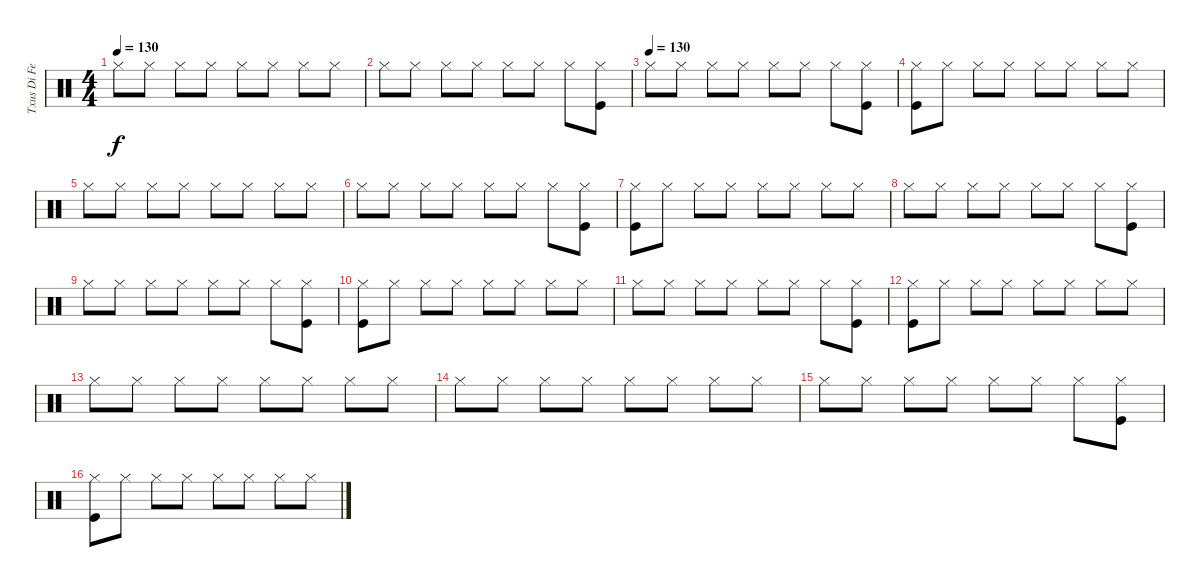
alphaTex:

\track ("Txus Di Fellatio" "Txus Di Fe") {instrument percussion}
\staff {score}
\articulation defaults
\ts (4 4)
\tempo 130
\clef neutral
\ks c "Hi-Hat (closed)".8{dy f} "Hi-Hat (closed)".8 "Hi-Hat (closed)".8 "Hi-Hat (closed)".8 "Hi-Hat (closed)".8 "Hi-Hat (closed)".8 "Hi-Hat (closed)".8 "Hi-Hat (closed)".8
|
"Hi-Hat (closed)".8 "Hi-Hat (closed)".8 "Hi-Hat (closed)".8 "Hi-Hat (closed)".8 "Hi-Hat (closed)".8 "Hi-Hat (closed)".8 "Hi-Hat (closed)".8 ("Hi-Hat (closed)" "Kick (hit)").8 |
\tempo (130)
"Hi-Hat (closed)".8 "Hi-Hat (closed)".8 "Hi-Hat (closed)".8 "Hi-Hat (closed)".8 "Hi-Hat (closed)".8 "Hi-Hat (closed)".8 "Hi-Hat (closed)".8 ("Hi-Hat (closed)" "Kick (hit)").8 |
("Hi-Hat (closed)" "Kick (hit)").8 "Hi-Hat (closed)".8 "Hi-Hat (closed)".8 "Hi-Hat (closed)".8 "Hi-Hat (closed)".8 "Hi-Hat (closed)".8 "Hi-Hat (closed)".8 "Hi-Hat (closed)".8 |
"Hi-Hat (closed)".8 "Hi-Hat (closed)".8 "Hi-Hat (closed)".8 "Hi-Hat (closed)".8 "Hi-Hat (closed)".8 "Hi-Hat (closed)".8 "Hi-Hat (closed)".8 "Hi-Hat (closed)".8 |
"Hi-Hat (closed)".8 "Hi-Hat (closed)".8 "Hi-Hat (closed)".8 "Hi-Hat (closed)".8 "Hi-Hat (closed)".8 "Hi-Hat (closed)".8 "Hi-Hat (closed)".8 ("Hi-Hat (closed)" "Kick (hit)").8 |
("Hi-Hat (closed)" "Kick (hit)").8 "Hi-Hat (closed)".8 "Hi-Hat (closed)".8 "Hi-Hat (closed)".8 "Hi-Hat (closed)".8 "Hi-Hat (closed)".8 "Hi-Hat (closed)".8 "Hi-Hat (closed)".8 |
"Hi-Hat (closed)".8 "Hi-Hat (closed)".8 "Hi-Hat (closed)".8 "Hi-Hat (closed)".8 "Hi-Hat (closed)".8 "Hi-Hat (closed)".8 "Hi-Hat (closed)".8 ("Hi-Hat (closed)" "Kick (hit)").8 |
"Hi-Hat (closed)".8 "Hi-Hat (closed)".8 "Hi-Hat (closed)".8 "Hi-Hat (closed)".8 "Hi-Hat (closed)".8 "Hi-Hat (closed)".8 "Hi-Hat (closed)".8 ("Hi-Hat (closed)" "Kick (hit)").8 |
("Hi-Hat (closed)" "Kick (hit)").8 "Hi-Hat (closed)".8 "Hi-Hat (closed)".8 "Hi-Hat (closed)".8 "Hi-Hat (closed)".8 "Hi-Hat (closed)".8 "Hi-Hat (closed)".8 "Hi-Hat (closed)".8 |
"Hi-Hat (closed)".8 "Hi-Hat (closed)".8 "Hi-Hat (closed)".8 "Hi-Hat (closed)".8 "Hi-Hat (closed)".8 "Hi-Hat (closed)".8 "Hi-Hat (closed)".8 ("Hi-Hat (closed)" "Kick (hit)").8 |
("Hi-Hat (closed)" "Kick (hit)").8 "Hi-Hat (closed)".8 "Hi-Hat (closed)".8 "Hi-Hat (closed)".8 "Hi-Hat (closed)".8 "Hi-Hat (closed)".8 "Hi-Hat (closed)".8 "Hi-Hat (closed)".8 |
"Hi-Hat (closed)".8 "Hi-Hat (closed)".8 "Hi-Hat (closed)".8 "Hi-Hat (closed)".8 "Hi-Hat (closed)".8 "Hi-Hat (closed)".8 "Hi-Hat (closed)".8 "Hi-Hat (closed)".8 |
"Hi-Hat (closed)".8 "Hi-Hat (closed)".8 "Hi-Hat (closed)".8 "Hi-Hat (closed)".8 "Hi-Hat (closed)".8 "Hi-Hat (closed)".8 "Hi-Hat (closed)".8 "Hi-Hat (closed)".8 |
"Hi-Hat (closed)".8 "Hi-Hat (closed)".8 "Hi-Hat (closed)".8 "Hi-Hat (closed)".8 "Hi-Hat (closed)".8 "Hi-Hat (closed)".8 "Hi-Hat (closed)".8 ("Hi-Hat (closed)" "Kick (hit)").8 |
("Hi-Hat (closed)" "Kick (hit)").8 "Hi-Hat (closed)".8 "Hi-Hat (closed)".8 "Hi-Hat (closed)".8 "Hi-Hat (closed)".8 "Hi-Hat (closed)".8 "Hi-Hat (closed)".8 "Hi-Hat (closed)".8
